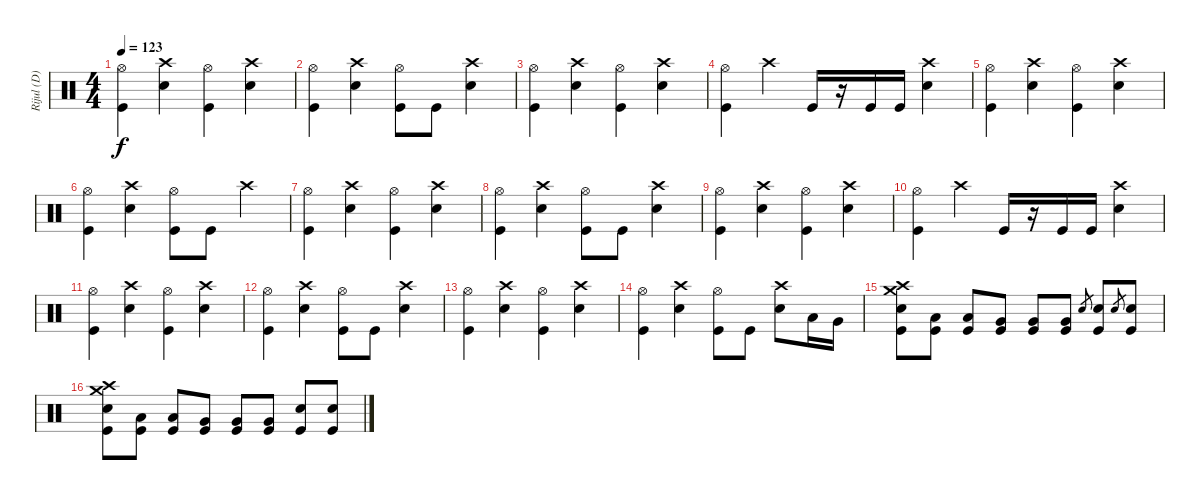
\track ("Rijul (D)" "Rijul (D)") {instrument percussion}
\staff {score}
\articulation defaults
\ts (4 4)
\tempo 123
\clef neutral
\ks c
("Hi-Hat (open)" "Kick (hit)").4{dy f} ("Crash high (hit)" "Snare (hit) 2").4 ("Hi-Hat (open)" "Kick (hit)").4 ("Crash high (hit)" "Snare (hit) 2").4 |
("Hi-Hat (open)" "Kick (hit)").4 ("Crash high (hit)" "Snare (hit) 2").4 ("Hi-Hat (open)" "Kick (hit)").8 "Kick (hit)".8 ("Crash high (hit)" "Snare (hit) 2").4 |
("Hi-Hat (open)" "Kick (hit)").4 ("Crash high (hit)" "Snare (hit) 2").4 ("Hi-Hat (open)" "Kick (hit)").4 ("Crash high (hit)" "Snare (hit) 2").4 |
("Hi-Hat (open)" "Kick (hit)").4 "Crash high (hit)".4 "Kick (hit)".16 r.16 "Kick (hit)".16 "Kick (hit)".16 ("Crash high (hit)" "Snare (hit) 2").4 |
("Hi-Hat (open)" "Kick (hit)").4 ("Crash high (hit)" "Snare (hit) 2").4 ("Hi-Hat (open)" "Kick (hit)").4 ("Crash high (hit)" "Snare (hit) 2").4 |
("Hi-Hat (open)" "Kick (hit)").4 ("Crash high (hit)" "Snare (hit) 2").4 ("Hi-Hat (open)" "Kick (hit)").8 "Kick (hit)".8 "Crash high (hit)".4 |
("Hi-Hat (open)" "Kick (hit)").4 ("Crash high (hit)" "Snare (hit) 2").4 ("Hi-Hat (open)" "Kick (hit)").4 ("Crash high (hit)" "Snare (hit) 2").4 |
("Hi-Hat (open)" "Kick (hit)").4 ("Crash high (hit)" "Snare (hit) 2").4 ("Hi-Hat (open)" "Kick (hit)").8 "Kick (hit)".8 ("Crash high (hit)" "Snare (hit) 2").4 |
("Hi-Hat (open)" "Kick (hit)").4 ("Crash high (hit)" "Snare (hit) 2").4 ("Hi-Hat (open)" "Kick (hit)").4 ("Crash high (hit)" "Snare (hit) 2").4 |
("Hi-Hat (open)" "Kick (hit)").4 "Crash high (hit)".4 "Kick (hit)".16 r.16 "Kick (hit)".16 "Kick (hit)".16 ("Crash high (hit)" "Snare (hit) 2").4 |
("Hi-Hat (open)" "Kick (hit)").4 ("Crash high (hit)" "Snare (hit) 2").4 ("Hi-Hat (open)" "Kick (hit)").4 ("Crash high (hit)" "Snare (hit) 2").4 |
("Hi-Hat (open)" "Kick (hit)").4 ("Crash high (hit)" "Snare (hit) 2").4 ("Hi-Hat (open)" "Kick (hit)").8 "Kick (hit)".8 ("Crash high (hit)" "Snare (hit) 2").4 |
("Hi-Hat (open)" "Kick (hit)").4 ("Crash high (hit)" "Snare (hit) 2").4 ("Hi-Hat (open)" "Kick (hit)").4 ("Crash high (hit)" "Snare (hit) 2").4 |
("Hi-Hat (open)" "Kick (hit)").4 ("Crash high (hit)" "Snare (hit) 2").4 ("Hi-Hat (open)" "Kick (hit)").8 "Kick (hit)".8 ("Crash high (hit)" "Snare (hit) 2").8 "Low Tom (hit)".16 "Very Low Tom (hit)".16 |
("Crash high (hit)" "Crash medium (hit)" "Snare (hit) 2" "Kick (hit)").8 ("Low Tom (hit)" "Kick (hit)").8 ("Low Tom (hit)" "Kick (hit)").8 ("Very Low Tom (hit)" "Kick (hit)").8 ("Very Low Tom (hit)" "Kick (hit)").8 ("Very Low Tom (hit)" "Kick (hit)").8 "Snare (hit) 2".8{gr} ("Snare (hit) 2" "Kick (hit)").8 "Snare (hit) 2".8{gr} ("Snare (hit) 2" "Kick (hit)").8 |
("Crash high (hit)" "Crash medium (hit)" "Snare (hit) 2" "Kick (hit)").8 ("Low Tom (hit)" "Kick (hit)").8 ("Low Tom (hit)" "Kick (hit)").8 ("Very Low Tom (hit)" "Kick (hit)").8 ("Very Low Tom (hit)" "Kick (hit)").8 ("Very Low Tom (hit)" "Kick (hit)").8 ("Snare (hit) 2" "Kick (hit)").8 ("Snare (hit) 2" "Kick (hit)").8
